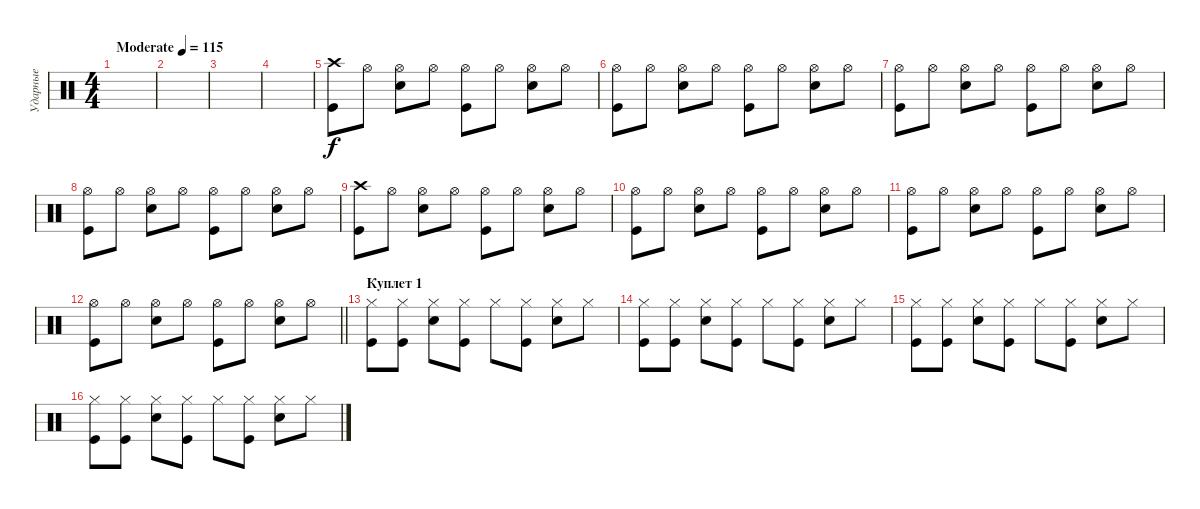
\track ("Ударные" "Ударные") {instrument percussion}
\staff {score}
\articulation defaults
\ts (4 4)
\tempo (115 "Moderate")
\clef neutral
\ks c
|
|
|
|
("Crash high (hit)" "Kick (hit)").8 "Hi-Hat (open)".8 ("Hi-Hat (open)" "Electric Snare (hit)").8 "Hi-Hat (open)".8 ("Hi-Hat (open)" "Kick (hit)").8 "Hi-Hat (open)".8 ("Hi-Hat (open)" "Electric Snare (hit)").8 "Hi-Hat (open)".8 |
("Hi-Hat (open)" "Kick (hit)").8 "Hi-Hat (open)".8 ("Hi-Hat (open)" "Electric Snare (hit)").8 "Hi-Hat (open)".8 ("Hi-Hat (open)" "Kick (hit)").8 "Hi-Hat (open)".8 ("Hi-Hat (open)" "Electric Snare (hit)").8 "Hi-Hat (open)".8 |
("Hi-Hat (open)" "Kick (hit)").8 "Hi-Hat (open)".8 ("Hi-Hat (open)" "Electric Snare (hit)").8 "Hi-Hat (open)".8 ("Hi-Hat (open)" "Kick (hit)").8 "Hi-Hat (open)".8 ("Hi-Hat (open)" "Electric Snare (hit)").8 "Hi-Hat (open)".8 |
("Hi-Hat (open)" "Kick (hit)").8 "Hi-Hat (open)".8 ("Hi-Hat (open)" "Electric Snare (hit)").8 "Hi-Hat (open)".8 ("Hi-Hat (open)" "Kick (hit)").8 "Hi-Hat (open)".8 ("Hi-Hat (open)" "Electric Snare (hit)").8 "Hi-Hat (open)".8 |
("Crash high (hit)" "Kick (hit)").8 "Hi-Hat (open)".8 ("Hi-Hat (open)" "Electric Snare (hit)").8 "Hi-Hat (open)".8 ("Hi-Hat (open)" "Kick (hit)").8 "Hi-Hat (open)".8 ("Hi-Hat (open)" "Electric Snare (hit)").8 "Hi-Hat (open)".8 |
("Hi-Hat (open)" "Kick (hit)").8 "Hi-Hat (open)".8 ("Hi-Hat (open)" "Electric Snare (hit)").8 "Hi-Hat (open)".8 ("Hi-Hat (open)" "Kick (hit)").8 "Hi-Hat (open)".8 ("Hi-Hat (open)" "Electric Snare (hit)").8 "Hi-Hat (open)".8 |
("Hi-Hat (open)" "Kick (hit)").8 "Hi-Hat (open)".8 ("Hi-Hat (open)" "Electric Snare (hit)").8 "Hi-Hat (open)".8 ("Hi-Hat (open)" "Kick (hit)").8 "Hi-Hat (open)".8 ("Hi-Hat (open)" "Electric Snare (hit)").8 "Hi-Hat (open)".8 |
\barLineRight lightlight
("Hi-Hat (open)" "Kick (hit)").8 "Hi-Hat (open)".8 ("Hi-Hat (open)" "Electric Snare (hit)").8 "Hi-Hat (open)".8 ("Hi-Hat (open)" "Kick (hit)").8 "Hi-Hat (open)".8 ("Hi-Hat (open)" "Electric Snare (hit)").8 "Hi-Hat (open)".8 |
\section ("" "Куплет 1")
("Hi-Hat (closed)" "Kick (hit)").8 ("Hi-Hat (closed)" "Kick (hit)").8 ("Hi-Hat (closed)" "Electric Snare (hit)").8 ("Hi-Hat (closed)" "Kick (hit)").8 "Hi-Hat (closed)".8 ("Hi-Hat (closed)" "Kick (hit)").8 ("Hi-Hat (closed)" "Electric Snare (hit)").8 "Hi-Hat (closed)".8 |
("Hi-Hat (closed)" "Kick (hit)").8 ("Hi-Hat (closed)" "Kick (hit)").8 ("Hi-Hat (closed)" "Electric Snare (hit)").8 ("Hi-Hat (closed)" "Kick (hit)").8 "Hi-Hat (closed)".8 ("Hi-Hat (closed)" "Kick (hit)").8 ("Hi-Hat (closed)" "Electric Snare (hit)").8 "Hi-Hat (closed)".8 |
("Hi-Hat (closed)" "Kick (hit)").8 ("Hi-Hat (closed)" "Kick (hit)").8 ("Hi-Hat (closed)" "Electric Snare (hit)").8 ("Hi-Hat (closed)" "Kick (hit)").8 "Hi-Hat (closed)".8 ("Hi-Hat (closed)" "Kick (hit)").8 ("Hi-Hat (closed)" "Electric Snare (hit)").8 "Hi-Hat (closed)".8 |
("Hi-Hat (closed)" "Kick (hit)").8 ("Hi-Hat (closed)" "Kick (hit)").8 ("Hi-Hat (closed)" "Electric Snare (hit)").8 ("Hi-Hat (closed)" "Kick (hit)").8 "Hi-Hat (closed)".8 ("Hi-Hat (closed)" "Kick (hit)").8 ("Hi-Hat (closed)" "Electric Snare (hit)").8 "Hi-Hat (closed)".8
